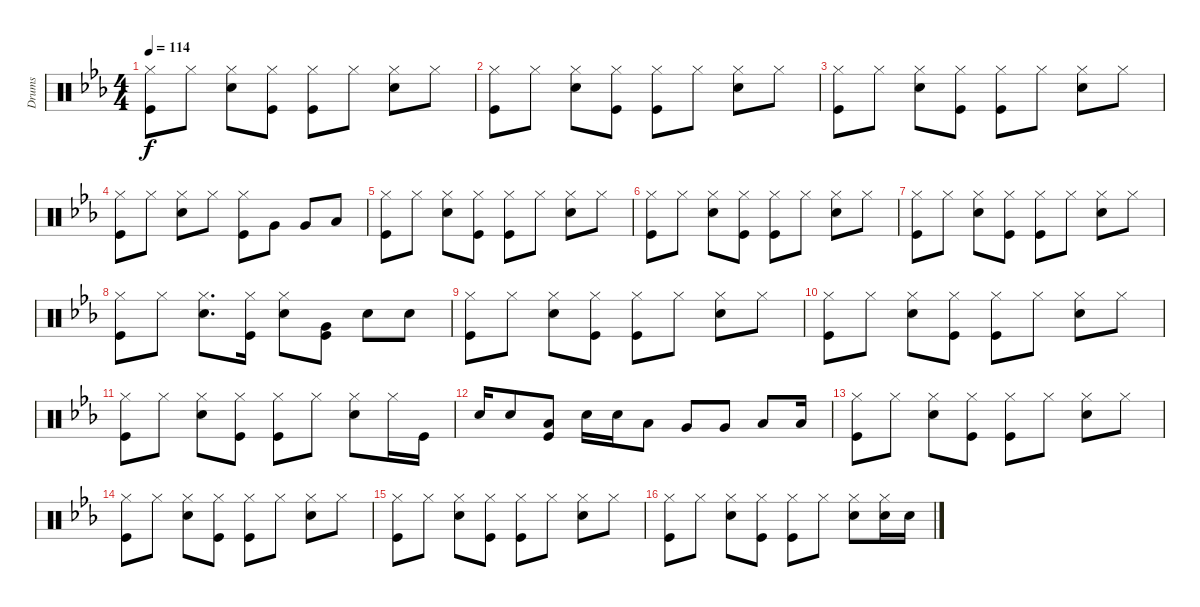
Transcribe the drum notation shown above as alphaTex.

\track ("Drums" "Drums") {instrument percussion}
\staff {score}
\articulation defaults
\ts (4 4)
\tempo 114
\clef neutral
\ks cminor
("Hi-Hat (closed)" "Kick (hit)").8{dy f} "Hi-Hat (closed)".8 ("Hi-Hat (closed)" "Electric Snare (hit)").8 ("Hi-Hat (closed)" "Kick (hit)").8 ("Hi-Hat (closed)" "Kick (hit)").8 "Hi-Hat (closed)".8 ("Hi-Hat (closed)" "Electric Snare (hit)").8 "Hi-Hat (closed)".8 |
("Hi-Hat (closed)" "Kick (hit)").8 "Hi-Hat (closed)".8 ("Hi-Hat (closed)" "Electric Snare (hit)").8 ("Hi-Hat (closed)" "Kick (hit)").8 ("Hi-Hat (closed)" "Kick (hit)").8 "Hi-Hat (closed)".8 ("Hi-Hat (closed)" "Electric Snare (hit)").8 "Hi-Hat (closed)".8 |
("Hi-Hat (closed)" "Kick (hit)").8 "Hi-Hat (closed)".8 ("Hi-Hat (closed)" "Electric Snare (hit)").8 ("Hi-Hat (closed)" "Kick (hit)").8 ("Hi-Hat (closed)" "Kick (hit)").8 "Hi-Hat (closed)".8 ("Hi-Hat (closed)" "Electric Snare (hit)").8 "Hi-Hat (closed)".8 |
("Hi-Hat (closed)" "Kick (hit)").8 "Hi-Hat (closed)".8 ("Hi-Hat (closed)" "Electric Snare (hit)").8 "Hi-Hat (closed)".8 ("Hi-Hat (closed)" "Kick (hit)").8 "Very Low Tom (hit)".8 "Very Low Tom (hit)".8 "Low Tom (hit)".8 |
("Hi-Hat (closed)" "Kick (hit)").8 "Hi-Hat (closed)".8 ("Hi-Hat (closed)" "Electric Snare (hit)").8 ("Hi-Hat (closed)" "Kick (hit)").8 ("Hi-Hat (closed)" "Kick (hit)").8 "Hi-Hat (closed)".8 ("Hi-Hat (closed)" "Electric Snare (hit)").8 "Hi-Hat (closed)".8 |
("Hi-Hat (closed)" "Kick (hit)").8 "Hi-Hat (closed)".8 ("Hi-Hat (closed)" "Electric Snare (hit)").8 ("Hi-Hat (closed)" "Kick (hit)").8 ("Hi-Hat (closed)" "Kick (hit)").8 "Hi-Hat (closed)".8 ("Hi-Hat (closed)" "Electric Snare (hit)").8 "Hi-Hat (closed)".8 |
("Hi-Hat (closed)" "Kick (hit)").8 "Hi-Hat (closed)".8 ("Hi-Hat (closed)" "Electric Snare (hit)").8 ("Hi-Hat (closed)" "Kick (hit)").8 ("Hi-Hat (closed)" "Kick (hit)").8 "Hi-Hat (closed)".8 ("Hi-Hat (closed)" "Electric Snare (hit)").8 "Hi-Hat (closed)".8 |
("Hi-Hat (closed)" "Kick (hit)").8 "Hi-Hat (closed)".8 ("Hi-Hat (closed)" "Electric Snare (hit)").8{d} ("Hi-Hat (closed)" "Kick (hit)").16 ("Hi-Hat (closed)" "Electric Snare (hit)").8 ("Very Low Tom (hit)" "Kick (hit)").8 "Electric Snare (hit)".8 "Electric Snare (hit)".8 |
("Hi-Hat (closed)" "Kick (hit)").8 "Hi-Hat (closed)".8 ("Hi-Hat (closed)" "Electric Snare (hit)").8 ("Hi-Hat (closed)" "Kick (hit)").8 ("Hi-Hat (closed)" "Kick (hit)").8 "Hi-Hat (closed)".8 ("Hi-Hat (closed)" "Electric Snare (hit)").8 "Hi-Hat (closed)".8 |
("Hi-Hat (closed)" "Kick (hit)").8 "Hi-Hat (closed)".8 ("Hi-Hat (closed)" "Electric Snare (hit)").8 ("Hi-Hat (closed)" "Kick (hit)").8 ("Hi-Hat (closed)" "Kick (hit)").8 "Hi-Hat (closed)".8 ("Hi-Hat (closed)" "Electric Snare (hit)").8 "Hi-Hat (closed)".8 |
("Hi-Hat (closed)" "Kick (hit)").8 "Hi-Hat (closed)".8 ("Hi-Hat (closed)" "Electric Snare (hit)").8 ("Hi-Hat (closed)" "Kick (hit)").8 ("Hi-Hat (closed)" "Kick (hit)").8 "Hi-Hat (closed)".8 ("Hi-Hat (closed)" "Electric Snare (hit)").8 "Hi-Hat (closed)".16 "Kick (hit)".16 |
"Electric Snare (hit)".16 "Electric Snare (hit)".8 ("Low Tom (hit)" "Kick (hit)").8 "Electric Snare (hit)".16 "Electric Snare (hit)".16 "Low Tom (hit)".8 "Very Low Tom (hit)".8 "Very Low Tom (hit)".8 "Low Floor Tom (hit)".8 "Low Floor Tom (hit)".16 |
("Hi-Hat (closed)" "Kick (hit)").8 "Hi-Hat (closed)".8 ("Hi-Hat (closed)" "Electric Snare (hit)").8 ("Hi-Hat (closed)" "Kick (hit)").8 ("Hi-Hat (closed)" "Kick (hit)").8 "Hi-Hat (closed)".8 ("Hi-Hat (closed)" "Electric Snare (hit)").8 "Hi-Hat (closed)".8 |
("Hi-Hat (closed)" "Kick (hit)").8 "Hi-Hat (closed)".8 ("Hi-Hat (closed)" "Electric Snare (hit)").8 ("Hi-Hat (closed)" "Kick (hit)").8 ("Hi-Hat (closed)" "Kick (hit)").8 "Hi-Hat (closed)".8 ("Hi-Hat (closed)" "Electric Snare (hit)").8 "Hi-Hat (closed)".8 |
("Hi-Hat (closed)" "Kick (hit)").8 "Hi-Hat (closed)".8 ("Hi-Hat (closed)" "Electric Snare (hit)").8 ("Hi-Hat (closed)" "Kick (hit)").8 ("Hi-Hat (closed)" "Kick (hit)").8 "Hi-Hat (closed)".8 ("Hi-Hat (closed)" "Electric Snare (hit)").8 "Hi-Hat (closed)".8 |
("Hi-Hat (closed)" "Kick (hit)").8 "Hi-Hat (closed)".8 ("Hi-Hat (closed)" "Electric Snare (hit)").8 ("Hi-Hat (closed)" "Kick (hit)").8 ("Hi-Hat (closed)" "Kick (hit)").8 "Hi-Hat (closed)".8 ("Hi-Hat (closed)" "Electric Snare (hit)").8 ("Hi-Hat (closed)" "Electric Snare (hit)").16 "Electric Snare (hit)".16
